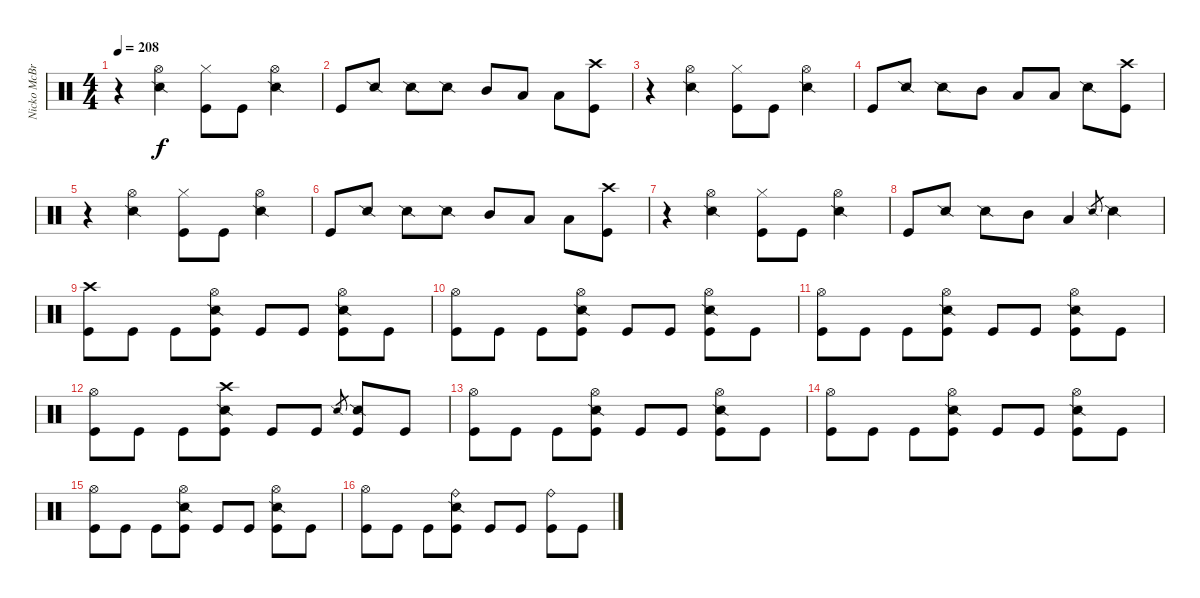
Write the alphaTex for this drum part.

\track ("Nicko McBrain" "Nicko McBr") {instrument percussion}
\staff {score}
\articulation defaults
\ts (4 4)
\tempo 208
\clef neutral
\ks c
r.4{dy f} ("Hi-Hat (open)" "Snare (side stick) 2").4 ("Hi-Hat (closed)" "Kick (hit)").8 "Kick (hit)".8 ("Hi-Hat (open)" "Snare (side stick) 2").4 |
"Kick (hit)".8 "Snare (side stick) 2".8 "Snare (side stick) 2".8 "Snare (side stick) 2".8 "Mid Tom (hit)".8 "Low Tom (hit)".8 "Low Tom (hit)".8 ("Crash high (hit)" "Kick (hit)").8 |
r.4 ("Hi-Hat (open)" "Snare (side stick) 2").4 ("Hi-Hat (closed)" "Kick (hit)").8 "Kick (hit)".8 ("Hi-Hat (open)" "Snare (side stick) 2").4 |
"Kick (hit)".8 "Snare (side stick) 2".8 "Snare (side stick) 2".8 "Mid Tom (hit)".8 "Low Tom (hit)".8 "Low Tom (hit)".8 "Snare (side stick) 2".8 ("Crash high (hit)" "Kick (hit)").8 |
r.4 ("Hi-Hat (open)" "Snare (side stick) 2").4 ("Hi-Hat (closed)" "Kick (hit)").8 "Kick (hit)".8 ("Hi-Hat (open)" "Snare (side stick) 2").4 |
"Kick (hit)".8 "Snare (side stick) 2".8 "Snare (side stick) 2".8 "Snare (side stick) 2".8 "Mid Tom (hit)".8 "Low Tom (hit)".8 "Low Tom (hit)".8 ("Crash high (hit)" "Kick (hit)").8 |
r.4 ("Hi-Hat (open)" "Snare (side stick) 2").4 ("Hi-Hat (closed)" "Kick (hit)").8 "Kick (hit)".8 ("Hi-Hat (open)" "Snare (side stick) 2").4 |
"Kick (hit)".8 "Snare (side stick) 2".8 "Snare (side stick) 2".8 "Mid Tom (hit)".8 "Low Tom (hit)".4 "Snare (side stick) 2".8{gr} "Snare (side stick) 2".4 |
("Crash high (hit)" "Kick (hit)").8 "Kick (hit)".8 "Kick (hit)".8 ("Hi-Hat (open)" "Snare (side stick) 2" "Kick (hit)").8 "Kick (hit)".8 "Kick (hit)".8 ("Hi-Hat (open)" "Snare (side stick) 2" "Kick (hit)").8 "Kick (hit)".8 |
("Hi-Hat (open)" "Kick (hit)").8 "Kick (hit)".8 "Kick (hit)".8 ("Hi-Hat (open)" "Snare (side stick) 2" "Kick (hit)").8 "Kick (hit)".8 "Kick (hit)".8 ("Hi-Hat (open)" "Snare (side stick) 2" "Kick (hit)").8 "Kick (hit)".8 |
("Hi-Hat (open)" "Kick (hit)").8 "Kick (hit)".8 "Kick (hit)".8 ("Hi-Hat (open)" "Snare (side stick) 2" "Kick (hit)").8 "Kick (hit)".8 "Kick (hit)".8 ("Hi-Hat (open)" "Snare (side stick) 2" "Kick (hit)").8 "Kick (hit)".8 |
("Hi-Hat (open)" "Kick (hit)").8 "Kick (hit)".8 "Kick (hit)".8 ("Crash high (hit)" "Snare (side stick) 2" "Kick (hit)").8 "Kick (hit)".8 "Kick (hit)".8 "Snare (side stick) 2".8{gr} ("Snare (side stick) 2" "Kick (hit)").8 "Kick (hit)".8 |
("Hi-Hat (open)" "Kick (hit)").8 "Kick (hit)".8 "Kick (hit)".8 ("Hi-Hat (open)" "Snare (side stick) 2" "Kick (hit)").8 "Kick (hit)".8 "Kick (hit)".8 ("Hi-Hat (open)" "Snare (side stick) 2" "Kick (hit)").8 "Kick (hit)".8 |
("Hi-Hat (open)" "Kick (hit)").8 "Kick (hit)".8 "Kick (hit)".8 ("Hi-Hat (open)" "Snare (side stick) 2" "Kick (hit)").8 "Kick (hit)".8 "Kick (hit)".8 ("Hi-Hat (open)" "Snare (side stick) 2" "Kick (hit)").8 "Kick (hit)".8 |
("Hi-Hat (open)" "Kick (hit)").8 "Kick (hit)".8 "Kick (hit)".8 ("Hi-Hat (open)" "Snare (side stick) 2" "Kick (hit)").8 "Kick (hit)".8 "Kick (hit)".8 ("Hi-Hat (open)" "Snare (side stick) 2" "Kick (hit)").8 "Kick (hit)".8 |
("Hi-Hat (open)" "Kick (hit)").8 "Kick (hit)".8 "Kick (hit)".8 ("Ride (bell)" "Snare (side stick) 2" "Kick (hit)").8 "Kick (hit)".8 "Kick (hit)".8 ("Ride (bell)" "Kick (hit)").8 "Kick (hit)".8
